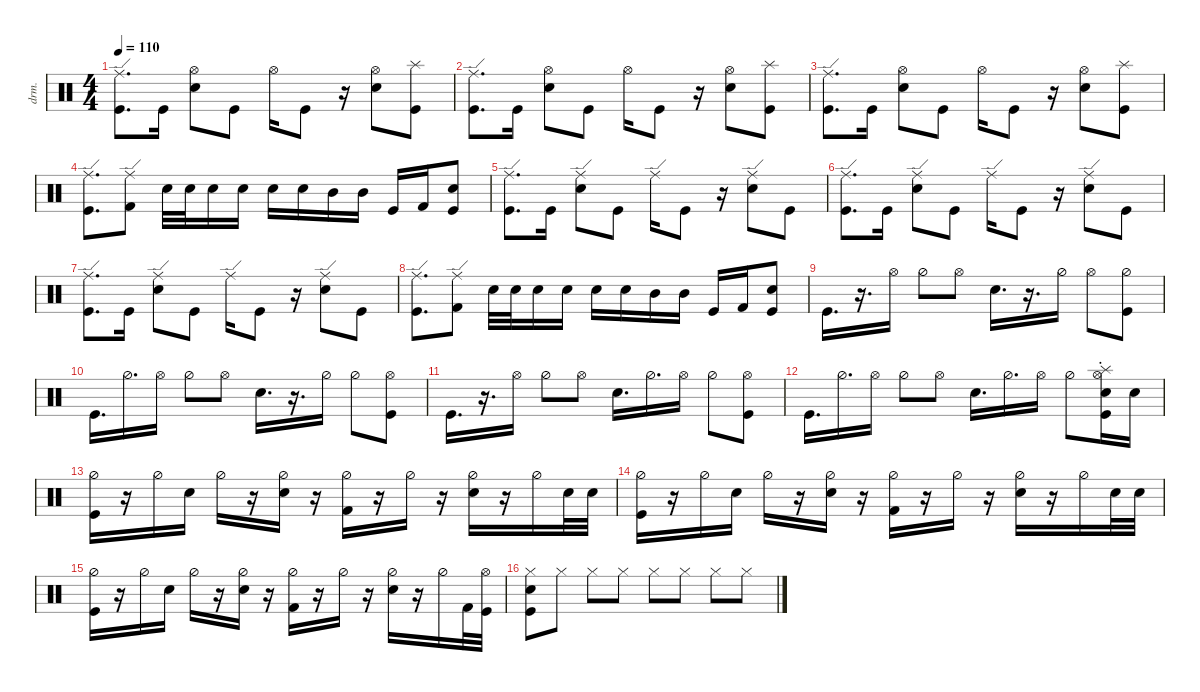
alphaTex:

\defaultSystemsLayout 4
\hideDynamics
\bracketExtendMode nobrackets
\otherSystemsTrackNameOrientation horizontal
\track ("Drumkit" "drm.") {instrument percussion}
\staff {score}
\articulation defaults
\ts (4 4)
\tempo 110
\clef neutral
\ks c
("Ride (edge)" "Kick (hit)").8{d dy mf beam Down} "Kick (hit)".16{beam Down} ("Hi-Hat (open)" "Snare (hit) 2").8{beam Down} "Kick (hit)".8{beam Down} "Hi-Hat (open)".16{beam Down} "Kick (hit)".8{beam Down} r.16{beam Down} ("Hi-Hat (open)" "Snare (hit) 2").8{beam Down} ("Kick (hit)" "Splash (hit)").8{beam Down} |
("Ride (edge)" "Kick (hit)").8{d beam Down} "Kick (hit)".16{beam Down} ("Hi-Hat (open)" "Snare (hit) 2").8{beam Down} "Kick (hit)".8{beam Down} "Hi-Hat (open)".16{beam Down} "Kick (hit)".8{beam Down} r.16{beam Down} ("Hi-Hat (open)" "Snare (hit) 2").8{beam Down} ("Kick (hit)" "Splash (hit)").8{beam Down} |
("Ride (edge)" "Kick (hit)").8{d beam Down} "Kick (hit)".16{beam Down} ("Hi-Hat (open)" "Snare (hit) 2").8{beam Down} "Kick (hit)".8{beam Down} "Hi-Hat (open)".16{beam Down} "Kick (hit)".8{beam Down} r.16{beam Down} ("Hi-Hat (open)" "Snare (hit) 2").8{beam Down} ("Kick (hit)" "Splash (hit)").8{beam Down} |
("Kick (hit)" "Ride (edge)").8{d beam Down} ("Ride (edge)" "Kick (hit) 2").8{beam Down} "Snare (hit) 2".32{beam Down} "Snare (hit) 2".32{beam Down} "Snare (hit) 2".16{beam Down} "Snare (hit) 2".16{beam Down} "Snare (hit) 2".16{beam Down} "Snare (hit) 2".16{beam Down} "Mid Tom (hit)".16{beam Down} "Mid Tom (hit)".16{beam Down} "Kick (hit)".16{beam Up} "Kick (hit) 2".16{beam Up} ("Snare (hit) 2" "Kick (hit)").8{beam Up} |
("Ride (edge)" "Kick (hit)").8{d beam Down} "Kick (hit)".16{beam Down} ("Snare (hit) 2" "Ride (edge)").8{beam Down} "Kick (hit)".8{beam Down} "Ride (edge)".16{beam Down} "Kick (hit)".8{beam Down} r.16{beam Down} ("Snare (hit) 2" "Ride (edge)").8{beam Down} "Kick (hit)".8{beam Down} |
("Ride (edge)" "Kick (hit)").8{d beam Down} "Kick (hit)".16{beam Down} ("Snare (hit) 2" "Ride (edge)").8{beam Down} "Kick (hit)".8{beam Down} "Ride (edge)".16{beam Down} "Kick (hit)".8{beam Down} r.16{beam Down} ("Snare (hit) 2" "Ride (edge)").8{beam Down} "Kick (hit)".8{beam Down} |
("Ride (edge)" "Kick (hit)").8{d beam Down} "Kick (hit)".16{beam Down} ("Snare (hit) 2" "Ride (edge)").8{beam Down} "Kick (hit)".8{beam Down} "Ride (edge)".16{beam Down} "Kick (hit)".8{beam Down} r.16{beam Down} ("Snare (hit) 2" "Ride (edge)").8{beam Down} "Kick (hit)".8{beam Down} |
("Kick (hit)" "Ride (edge)").8{d beam Down} ("Ride (edge)" "Kick (hit) 2").8{beam Down} "Snare (hit) 2".32{beam Down} "Snare (hit) 2".32{beam Down} "Snare (hit) 2".16{beam Down} "Snare (hit) 2".16{beam Down} "Snare (hit) 2".16{beam Down} "Snare (hit) 2".16{beam Down} "Mid Tom (hit)".16{beam Down} "Mid Tom (hit)".16{beam Down} "Kick (hit)".16{beam Up} "Kick (hit) 2".16{beam Up} ("Snare (hit) 2" "Kick (hit)").8{beam Up} |
"Kick (hit)".16{d beam Down} r.16{d beam Down} "Hi-Hat (open)".16{beam Down} "Hi-Hat (half)".8{beam Down} "Hi-Hat (open)".8{beam Down} "Snare (hit) 2".16{d beam Down} r.16{d beam Down} "Hi-Hat (half)".16{beam Down} "Hi-Hat (open)".8{beam Down} ("Hi-Hat (half)" "Kick (hit)").8{beam Down} |
"Kick (hit)".16{d beam Down} "Hi-Hat (half)".16{d beam Down} "Hi-Hat (open)".16{beam Down} "Hi-Hat (half)".8{beam Down} "Hi-Hat (open)".8{beam Down} "Snare (hit) 2".16{d beam Down} r.16{d beam Down} "Hi-Hat (half)".16{beam Down} "Hi-Hat (half)".8{beam Down} ("Hi-Hat (open)" "Kick (hit)").8{beam Down} |
"Kick (hit)".16{d beam Down} r.16{d beam Down} "Hi-Hat (open)".16{beam Down} "Hi-Hat (half)".8{beam Down} "Hi-Hat (open)".8{beam Down} "Snare (hit) 2".16{d beam Down} "Hi-Hat (half)".16{d beam Down} "Hi-Hat (open)".16{beam Down} "Hi-Hat (half)".8{beam Down} ("Hi-Hat (open)" "Kick (hit)").8{beam Down} |
"Kick (hit)".16{d beam Down} "Hi-Hat (half)".16{d beam Down} "Hi-Hat (open)".16{beam Down} "Hi-Hat (half)".8{beam Down} "Hi-Hat (open)".8{beam Down} "Snare (hit) 2".16{d beam Down} "Hi-Hat (half)".16{d beam Down} "Hi-Hat (open)".16{beam Down} "Hi-Hat (half)".8{beam Down} ("Hi-Hat (open)" "Kick (hit)" "Splash (choke)" "Snare (hit) 2").16{beam Down} "Snare (hit) 2".16{beam Down} |
("Hi-Hat (half)" "Kick (hit)").16{beam Down} r.16{beam Down} "Hi-Hat (half)".16{beam Down} "Snare (hit) 2".16{beam Down} "Hi-Hat (half)".16{beam Down} r.16{beam Down} ("Hi-Hat (half)" "Snare (hit) 2").16{beam Down} r.16{beam Down} ("Hi-Hat (half)" "Kick (hit) 2").16{beam Down} r.16{beam Down} "Hi-Hat (half)".16{beam Down} r.16{beam Down} ("Hi-Hat (half)" "Snare (hit) 2").16{beam Down} r.16{beam Down} "Hi-Hat (half)".16{beam Down} "Snare (hit) 2".32{beam Down} "Snare (hit) 2".32{beam Down} |
("Hi-Hat (half)" "Kick (hit)").16{beam Down} r.16{beam Down} "Hi-Hat (half)".16{beam Down} "Snare (hit) 2".16{beam Down} "Hi-Hat (half)".16{beam Down} r.16{beam Down} ("Hi-Hat (half)" "Snare (hit) 2").16{beam Down} r.16{beam Down} ("Hi-Hat (half)" "Kick (hit) 2").16{beam Down} r.16{beam Down} "Hi-Hat (half)".16{beam Down} r.16{beam Down} ("Hi-Hat (half)" "Snare (hit) 2").16{beam Down} r.16{beam Down} "Hi-Hat (half)".16{beam Down} "Snare (hit) 2".32{beam Down} "Snare (hit) 2".32{beam Down} |
("Hi-Hat (half)" "Kick (hit)").16{beam Down} r.16{beam Down} "Hi-Hat (half)".16{beam Down} "Snare (hit) 2".16{beam Down} "Hi-Hat (half)".16{beam Down} r.16{beam Down} ("Hi-Hat (half)" "Snare (hit) 2").16{beam Down} r.16{beam Down} ("Hi-Hat (half)" "Kick (hit) 2").16{beam Down} r.16{beam Down} "Hi-Hat (half)".16{beam Down} r.16{beam Down} ("Hi-Hat (half)" "Snare (hit) 2").16{beam Down} r.16{beam Down} "Hi-Hat (half)".16{beam Down} "Kick (hit) 2".32{beam Down} ("Hi-Hat (open)" "Kick (hit)").32{beam Down} |
("Hi-Hat (closed)" "Snare (hit) 2" "Kick (hit)").8{beam Down} "Hi-Hat (closed)".8{beam Down} "Hi-Hat (closed)".8{beam Down} "Hi-Hat (closed)".8{beam Down} "Hi-Hat (closed)".8{beam Down} "Hi-Hat (closed)".8{beam Down} "Hi-Hat (closed)".8{beam Down} "Hi-Hat (closed)".8{beam Down}
